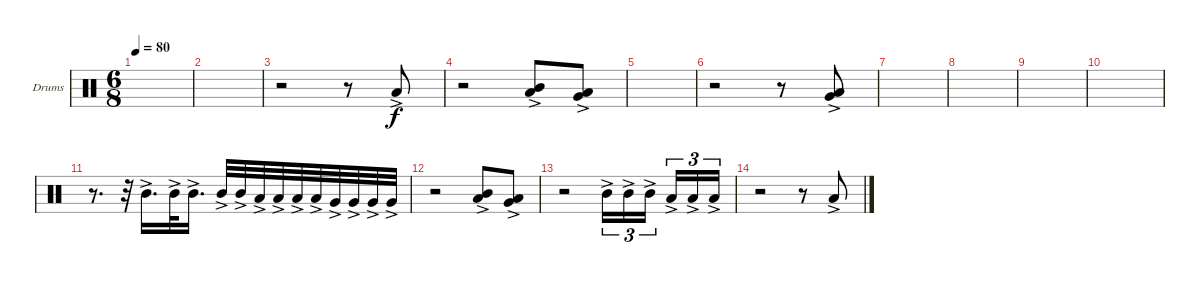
\defaultSystemsLayout 4
\bracketExtendMode groupsimilarinstruments
\firstSystemTrackNameOrientation horizontal
\otherSystemsTrackNameOrientation horizontal
\track ("Drumkit" "Drums") {instrument percussion}
\staff {score}
\articulation defaults
\ts (6 8)
\tempo 80
\clef neutral
\scale
0.333333
\ks c
|
\scale
0.333333 |
\scale
0.333333 r.2 r.8 "Low Tom (hit)"{ac}.8 |
\scale
0.333333 r.2 ("Mid Tom (hit)"{ac} "Low Tom (hit)"{ac}).8 ("Low Tom (hit)"{ac} "Very Low Tom (hit)"{ac}).8 |
\scale
0.333333 |
\scale
0.333333 r.2 r.8 ("Low Tom (hit)"{ac} "Very Low Tom (hit)"{ac}).8 |
\scale
0.333333 |
\scale
0.333333 |
\scale
0.333333 |
\scale
0.333333 |
r.8{d} r.32 "Mid Tom (hit)"{ac}.16{d} "Mid Tom (hit)"{ac}.32 "Mid Tom (hit)"{ac}.16{d} "Mid Tom (hit)"{ac}.32 "Mid Tom (hit)"{ac}.32 "Low Tom (hit)"{ac}.32 "Low Tom (hit)"{ac}.32 "Low Tom (hit)"{ac}.32 "Low Tom (hit)"{ac}.32 "Very Low Tom (hit)"{ac}.32 "Very Low Tom (hit)"{ac}.32 "Very Low Tom (hit)"{ac}.32 "Very Low Tom (hit)"{ac}.32 |
r.2 ("Mid Tom (hit)"{ac} "Low Tom (hit)"{ac}).8 ("Low Tom (hit)"{ac} "Very Low Tom (hit)"{ac}).8 |
r.2 "Mid Tom (hit)"{ac}.16{tu (3 2)} "Mid Tom (hit)"{ac}.16{tu (3 2)} "Mid Tom (hit)"{ac}.16{tu (3 2)} "Low Tom (hit)"{ac}.16{tu (3 2)} "Low Tom (hit)"{ac}.16{tu (3 2)} "Low Tom (hit)"{ac}.16{tu (3 2)} |
r.2 r.8 "Low Tom (hit)"{ac}.8
